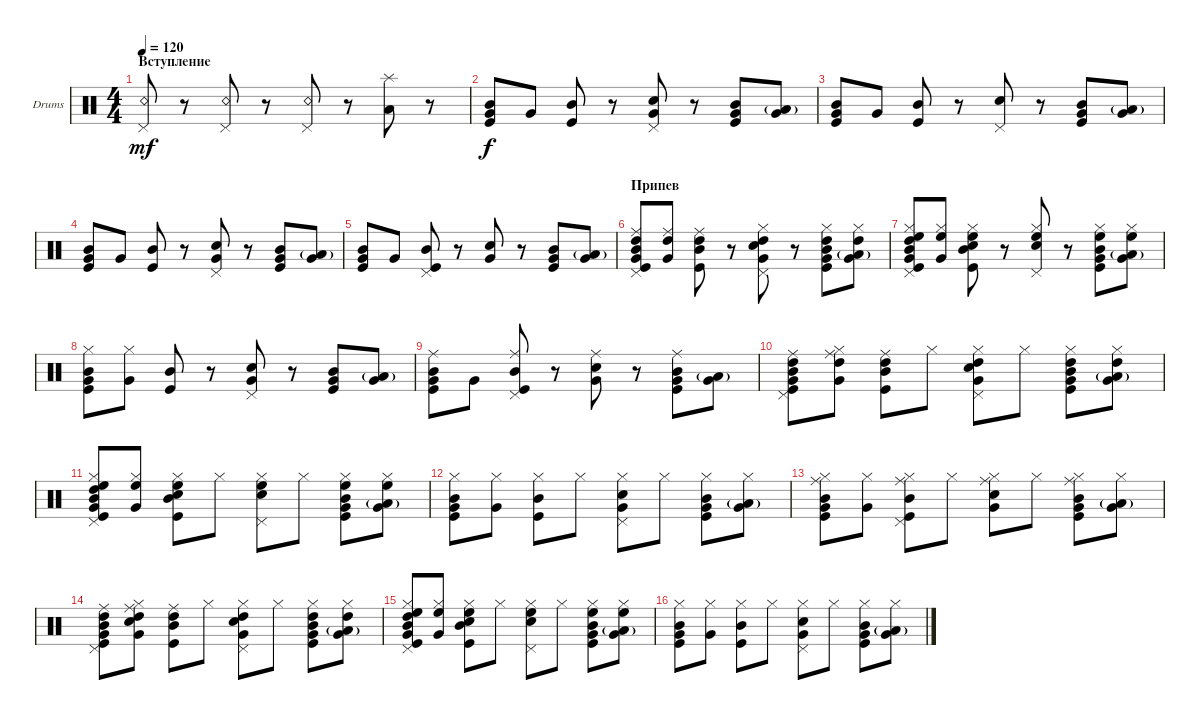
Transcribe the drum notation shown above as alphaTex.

\defaultSystemsLayout 4
\bracketExtendMode groupsimilarinstruments
\firstSystemTrackNameOrientation horizontal
\otherSystemsTrackNameOrientation horizontal
\track ("Drumkit" "Drums") {instrument percussion}
\staff {score}
\articulation defaults
\ts (4 4)
\section ("" "Вступление")
\tempo 120
\clef neutral
\ks c
("Pedal Hi-Hat (hit)" "Snare (rim shot)").8{dy mf} r.8 ("Pedal Hi-Hat (hit)" "Snare (rim shot)").8 r.8 ("Pedal Hi-Hat (hit)" "Snare (rim shot)").8 r.8 ("Low Tom (hit)" "Splash (hit)").8 r.8 |
("Mid Tom (hit)" "Very Low Tom (hit)" "Kick (hit)").8{dy f} "Very Low Tom (hit)".8 ("Mid Tom (hit)" "Kick (hit)").8 r.8 ("Very Low Tom (hit)" "Snare (hit) 2" "Pedal Hi-Hat (hit)").8 r.8 ("Mid Tom (hit)" "Very Low Tom (hit)" "Kick (hit)").8 ("Low Tom (hit)"{g} "Very Low Tom (hit)").8 |
("Mid Tom (hit)" "Very Low Tom (hit)" "Kick (hit)").8 "Very Low Tom (hit)".8 ("Mid Tom (hit)" "Kick (hit)").8 r.8 ("Snare (hit) 2" "Pedal Hi-Hat (hit)").8 r.8 ("Mid Tom (hit)" "Very Low Tom (hit)" "Kick (hit)").8 ("Low Tom (hit)"{g} "Very Low Tom (hit)").8 |
("Mid Tom (hit)" "Very Low Tom (hit)" "Kick (hit)").8 "Very Low Tom (hit)".8 ("Mid Tom (hit)" "Kick (hit)").8 r.8 ("Very Low Tom (hit)" "Snare (hit) 2" "Pedal Hi-Hat (hit)").8 r.8 ("Mid Tom (hit)" "Very Low Tom (hit)" "Kick (hit)").8 ("Low Tom (hit)"{g} "Very Low Tom (hit)").8 |
("Mid Tom (hit)" "Very Low Tom (hit)" "Kick (hit)").8 "Very Low Tom (hit)".8 ("Mid Tom (hit)" "Kick (hit)" "Pedal Hi-Hat (hit)").8 r.8 ("Very Low Tom (hit)" "Snare (hit) 2").8 r.8 ("Mid Tom (hit)" "Very Low Tom (hit)" "Kick (hit)").8 ("Low Tom (hit)"{g} "Very Low Tom (hit)").8 |
\section ("" "Припев")
("Mid Tom (hit)" "Very Low Tom (hit)" "Kick (hit)" "Pedal Hi-Hat (hit)" "Ride (middle)" "High Tom (hit)").8 ("Very Low Tom (hit)" "Ride (middle)" "High Tom (hit)").8 ("Mid Tom (hit)" "Kick (hit)" "Ride (middle)" "High Tom (hit)").8 r.8 ("Very Low Tom (hit)" "Snare (hit) 2" "Pedal Hi-Hat (hit)" "Hi-Hat (closed)" "High Tom (hit)").8 r.8 ("Mid Tom (hit)" "Very Low Tom (hit)" "Kick (hit)" "Hi-Hat (closed)" "High Tom (hit)").8 ("Low Tom (hit)"{g} "Very Low Tom (hit)" "Hi-Hat (closed)" "High Tom (hit)").8 |
("Mid Tom (hit)" "Very Low Tom (hit)" "Kick (hit)" "Hi-Hat (closed)" "Pedal Hi-Hat (hit)" "High Tom (hit)" "High Floor Tom (hit)").8 ("Very Low Tom (hit)" "Hi-Hat (closed)" "High Floor Tom (hit)").8 ("Mid Tom (hit)" "Kick (hit)" "Hi-Hat (closed)" "Snare (hit) 2" "High Floor Tom (hit)").8 r.8 ("Snare (hit) 2" "Pedal Hi-Hat (hit)" "Hi-Hat (closed)" "High Floor Tom (hit)").8 r.8 ("Mid Tom (hit)" "Very Low Tom (hit)" "Kick (hit)" "Hi-Hat (closed)" "High Floor Tom (hit)").8 ("Low Tom (hit)"{g} "Very Low Tom (hit)" "Hi-Hat (closed)" "High Floor Tom (hit)").8 |
("Mid Tom (hit)" "Very Low Tom (hit)" "Kick (hit)" "Hi-Hat (closed)").8 ("Very Low Tom (hit)" "Hi-Hat (closed)").8 ("Mid Tom (hit)" "Kick (hit)").8 r.8 ("Very Low Tom (hit)" "Snare (hit) 2" "Pedal Hi-Hat (hit)").8 r.8 ("Mid Tom (hit)" "Very Low Tom (hit)" "Kick (hit)").8 ("Low Tom (hit)"{g} "Very Low Tom (hit)").8 |
("Mid Tom (hit)" "Very Low Tom (hit)" "Kick (hit)" "Ride (middle)").8 "Very Low Tom (hit)".8 ("Mid Tom (hit)" "Kick (hit)" "Pedal Hi-Hat (hit)" "Ride (middle)").8 r.8 ("Very Low Tom (hit)" "Snare (hit) 2" "Ride (middle)").8 r.8 ("Mid Tom (hit)" "Very Low Tom (hit)" "Kick (hit)" "Ride (middle)").8 ("Low Tom (hit)"{g} "Very Low Tom (hit)").8 |
("Mid Tom (hit)" "Very Low Tom (hit)" "Kick (hit)" "Pedal Hi-Hat (hit)" "Ride (middle)" "High Tom (hit)").8 ("Very Low Tom (hit)" "Ride (middle)" "High Tom (hit)" "Hi-Hat (closed)").8 ("Mid Tom (hit)" "Kick (hit)" "Ride (middle)" "High Tom (hit)").8 "Hi-Hat (closed)".8 ("Very Low Tom (hit)" "Snare (hit) 2" "Pedal Hi-Hat (hit)" "Hi-Hat (closed)" "High Tom (hit)").8 "Hi-Hat (closed)".8 ("Mid Tom (hit)" "Very Low Tom (hit)" "Kick (hit)" "Hi-Hat (closed)" "High Tom (hit)").8 ("Low Tom (hit)"{g} "Very Low Tom (hit)" "Hi-Hat (closed)" "High Tom (hit)").8 |
("Mid Tom (hit)" "Very Low Tom (hit)" "Kick (hit)" "Hi-Hat (closed)" "Pedal Hi-Hat (hit)" "High Tom (hit)" "High Floor Tom (hit)").8 ("Very Low Tom (hit)" "Hi-Hat (closed)" "High Floor Tom (hit)").8 ("Mid Tom (hit)" "Kick (hit)" "Hi-Hat (closed)" "Snare (hit) 2" "High Floor Tom (hit)").8 "Hi-Hat (closed)".8 ("Snare (hit) 2" "Pedal Hi-Hat (hit)" "Hi-Hat (closed)" "High Floor Tom (hit)").8 "Hi-Hat (closed)".8 ("Mid Tom (hit)" "Very Low Tom (hit)" "Kick (hit)" "Hi-Hat (closed)" "High Floor Tom (hit)").8 ("Low Tom (hit)"{g} "Very Low Tom (hit)" "Hi-Hat (closed)" "High Floor Tom (hit)").8 |
("Mid Tom (hit)" "Very Low Tom (hit)" "Kick (hit)" "Hi-Hat (closed)").8 ("Very Low Tom (hit)" "Hi-Hat (closed)").8 ("Mid Tom (hit)" "Kick (hit)" "Hi-Hat (closed)").8 "Hi-Hat (closed)".8 ("Very Low Tom (hit)" "Snare (hit) 2" "Pedal Hi-Hat (hit)" "Hi-Hat (closed)").8 "Hi-Hat (closed)".8 ("Mid Tom (hit)" "Very Low Tom (hit)" "Kick (hit)" "Hi-Hat (closed)").8 ("Low Tom (hit)"{g} "Very Low Tom (hit)" "Hi-Hat (closed)").8 |
("Mid Tom (hit)" "Very Low Tom (hit)" "Kick (hit)" "Ride (middle)" "Hi-Hat (closed)").8 ("Very Low Tom (hit)" "Hi-Hat (closed)").8 ("Mid Tom (hit)" "Kick (hit)" "Pedal Hi-Hat (hit)" "Ride (middle)" "Hi-Hat (closed)").8 "Hi-Hat (closed)".8 ("Very Low Tom (hit)" "Snare (hit) 2" "Ride (middle)" "Hi-Hat (closed)").8 "Hi-Hat (closed)".8 ("Mid Tom (hit)" "Very Low Tom (hit)" "Kick (hit)" "Ride (middle)" "Hi-Hat (closed)").8 ("Low Tom (hit)"{g} "Very Low Tom (hit)" "Hi-Hat (closed)").8 |
("Mid Tom (hit)" "Very Low Tom (hit)" "Kick (hit)" "Pedal Hi-Hat (hit)" "Ride (middle)" "High Tom (hit)").8 ("Very Low Tom (hit)" "Ride (middle)" "High Tom (hit)" "Hi-Hat (closed)" "Snare (hit) 2").8 ("Mid Tom (hit)" "Kick (hit)" "Ride (middle)" "High Tom (hit)").8 "Hi-Hat (closed)".8 ("Very Low Tom (hit)" "Snare (hit) 2" "Pedal Hi-Hat (hit)" "Hi-Hat (closed)" "High Tom (hit)").8 "Hi-Hat (closed)".8 ("Mid Tom (hit)" "Very Low Tom (hit)" "Kick (hit)" "Hi-Hat (closed)" "High Tom (hit)").8 ("Low Tom (hit)"{g} "Very Low Tom (hit)" "Hi-Hat (closed)" "High Tom (hit)").8 |
("Mid Tom (hit)" "Very Low Tom (hit)" "Kick (hit)" "Hi-Hat (closed)" "Pedal Hi-Hat (hit)" "High Tom (hit)" "High Floor Tom (hit)").8 ("Very Low Tom (hit)" "Hi-Hat (closed)" "High Floor Tom (hit)").8 ("Mid Tom (hit)" "Kick (hit)" "Hi-Hat (closed)" "Snare (hit) 2" "High Floor Tom (hit)").8 "Hi-Hat (closed)".8 ("Snare (hit) 2" "Pedal Hi-Hat (hit)" "Hi-Hat (closed)" "High Floor Tom (hit)").8 "Hi-Hat (closed)".8 ("Mid Tom (hit)" "Very Low Tom (hit)" "Kick (hit)" "Hi-Hat (closed)" "High Floor Tom (hit)").8 ("Low Tom (hit)"{g} "Very Low Tom (hit)" "Hi-Hat (closed)" "High Floor Tom (hit)").8 |
("Mid Tom (hit)" "Very Low Tom (hit)" "Kick (hit)" "Hi-Hat (closed)").8 ("Very Low Tom (hit)" "Hi-Hat (closed)").8 ("Mid Tom (hit)" "Kick (hit)" "Hi-Hat (closed)").8 "Hi-Hat (closed)".8 ("Very Low Tom (hit)" "Snare (hit) 2" "Pedal Hi-Hat (hit)" "Hi-Hat (closed)").8 "Hi-Hat (closed)".8 ("Mid Tom (hit)" "Very Low Tom (hit)" "Kick (hit)" "Hi-Hat (closed)").8 ("Low Tom (hit)"{g} "Very Low Tom (hit)" "Hi-Hat (closed)").8
